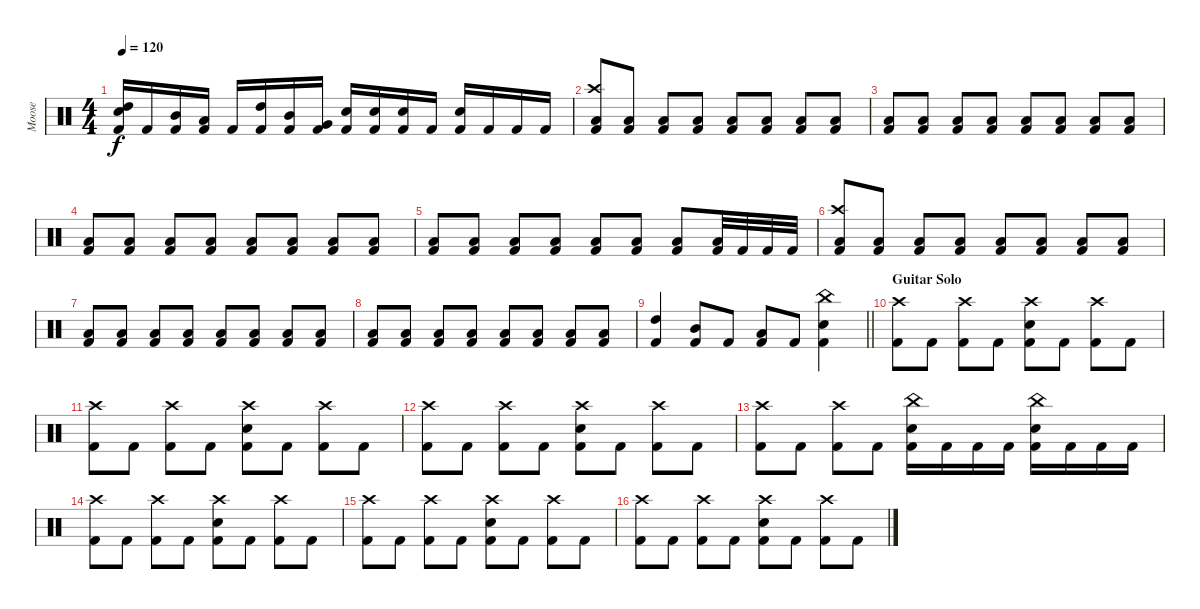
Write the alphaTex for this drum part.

\track ("Moose" "Moose") {instrument percussion}
\staff {score}
\articulation defaults
\ts (4 4)
\tempo 120
\clef neutral
\ks c
("High Tom (hit)" "Snare (hit) 2" "Kick (hit) 2").16{dy f} "Kick (hit) 2".16 ("Mid Tom (hit)" "Kick (hit) 2").16 ("Low Tom (hit)" "Kick (hit) 2").16 "Kick (hit) 2".16 ("High Tom (hit)" "Kick (hit) 2").16 ("Mid Tom (hit)" "Kick (hit) 2").16 ("Very Low Tom (hit)" "Kick (hit) 2").16 ("Snare (hit) 2" "Kick (hit) 2").16 ("Snare (hit) 2" "Kick (hit) 2").16 ("Snare (hit) 2" "Kick (hit) 2").16 "Kick (hit) 2".16 ("Snare (hit) 2" "Kick (hit) 2").16 "Kick (hit) 2".16 "Kick (hit) 2".16 "Kick (hit) 2".16 |
("Crash high (hit)" "Low Floor Tom (hit)" "Kick (hit) 2").8 ("Low Floor Tom (hit)" "Kick (hit) 2").8 ("Low Floor Tom (hit)" "Kick (hit) 2").8 ("Low Floor Tom (hit)" "Kick (hit) 2").8 ("Low Floor Tom (hit)" "Kick (hit) 2").8 ("Low Floor Tom (hit)" "Kick (hit) 2").8 ("Low Floor Tom (hit)" "Kick (hit) 2").8 ("Low Floor Tom (hit)" "Kick (hit) 2").8 |
("Low Floor Tom (hit)" "Kick (hit) 2").8 ("Low Floor Tom (hit)" "Kick (hit) 2").8 ("Low Floor Tom (hit)" "Kick (hit) 2").8 ("Low Floor Tom (hit)" "Kick (hit) 2").8 ("Low Floor Tom (hit)" "Kick (hit) 2").8 ("Low Floor Tom (hit)" "Kick (hit) 2").8 ("Low Floor Tom (hit)" "Kick (hit) 2").8 ("Low Floor Tom (hit)" "Kick (hit) 2").8 |
("Low Floor Tom (hit)" "Kick (hit) 2").8 ("Low Floor Tom (hit)" "Kick (hit) 2").8 ("Low Floor Tom (hit)" "Kick (hit) 2").8 ("Low Floor Tom (hit)" "Kick (hit) 2").8 ("Low Floor Tom (hit)" "Kick (hit) 2").8 ("Low Floor Tom (hit)" "Kick (hit) 2").8 ("Low Floor Tom (hit)" "Kick (hit) 2").8 ("Low Floor Tom (hit)" "Kick (hit) 2").8 |
("Low Floor Tom (hit)" "Kick (hit) 2").8 ("Low Floor Tom (hit)" "Kick (hit) 2").8 ("Low Floor Tom (hit)" "Kick (hit) 2").8 ("Low Floor Tom (hit)" "Kick (hit) 2").8 ("Low Floor Tom (hit)" "Kick (hit) 2").8 ("Low Floor Tom (hit)" "Kick (hit) 2").8 ("Low Floor Tom (hit)" "Kick (hit) 2").8 ("Low Floor Tom (hit)" "Kick (hit) 2").32 "Kick (hit) 2".32 "Kick (hit) 2".32 "Kick (hit) 2".32 |
("Crash high (hit)" "Low Floor Tom (hit)" "Kick (hit) 2").8 ("Low Floor Tom (hit)" "Kick (hit) 2").8 ("Low Floor Tom (hit)" "Kick (hit) 2").8 ("Low Floor Tom (hit)" "Kick (hit) 2").8 ("Low Floor Tom (hit)" "Kick (hit) 2").8 ("Low Floor Tom (hit)" "Kick (hit) 2").8 ("Low Floor Tom (hit)" "Kick (hit) 2").8 ("Low Floor Tom (hit)" "Kick (hit) 2").8 |
("Low Floor Tom (hit)" "Kick (hit) 2").8 ("Low Floor Tom (hit)" "Kick (hit) 2").8 ("Low Floor Tom (hit)" "Kick (hit) 2").8 ("Low Floor Tom (hit)" "Kick (hit) 2").8 ("Low Floor Tom (hit)" "Kick (hit) 2").8 ("Low Floor Tom (hit)" "Kick (hit) 2").8 ("Low Floor Tom (hit)" "Kick (hit) 2").8 ("Low Floor Tom (hit)" "Kick (hit) 2").8 |
("Low Floor Tom (hit)" "Kick (hit) 2").8 ("Low Floor Tom (hit)" "Kick (hit) 2").8 ("Low Floor Tom (hit)" "Kick (hit) 2").8 ("Low Floor Tom (hit)" "Kick (hit) 2").8 ("Low Floor Tom (hit)" "Kick (hit) 2").8 ("Low Floor Tom (hit)" "Kick (hit) 2").8 ("Low Floor Tom (hit)" "Kick (hit) 2").8 ("Low Floor Tom (hit)" "Kick (hit) 2").8 |
\barLineRight lightlight
("High Tom (hit)" "Kick (hit) 2").4 ("Mid Tom (hit)" "Kick (hit) 2").8 "Kick (hit) 2".8 ("Low Tom (hit)" "Kick (hit) 2").8 "Kick (hit) 2".8 ("China (hit)" "Snare (hit) 2" "Kick (hit) 2").4 |
\section ("" "Guitar Solo")
("Crash high (hit)" "Kick (hit) 2").8 "Kick (hit) 2".8 ("Crash high (hit)" "Kick (hit) 2").8 "Kick (hit) 2".8 ("Crash high (hit)" "Snare (hit) 2" "Kick (hit) 2").8 "Kick (hit) 2".8 ("Crash high (hit)" "Kick (hit) 2").8 "Kick (hit) 2".8 |
("Crash high (hit)" "Kick (hit) 2").8 "Kick (hit) 2".8 ("Crash high (hit)" "Kick (hit) 2").8 "Kick (hit) 2".8 ("Crash high (hit)" "Snare (hit) 2" "Kick (hit) 2").8 "Kick (hit) 2".8 ("Crash high (hit)" "Kick (hit) 2").8 "Kick (hit) 2".8 |
("Crash high (hit)" "Kick (hit) 2").8 "Kick (hit) 2".8 ("Crash high (hit)" "Kick (hit) 2").8 "Kick (hit) 2".8 ("Crash high (hit)" "Snare (hit) 2" "Kick (hit) 2").8 "Kick (hit) 2".8 ("Crash high (hit)" "Kick (hit) 2").8 "Kick (hit) 2".8 |
("Crash high (hit)" "Kick (hit) 2").8 "Kick (hit) 2".8 ("Crash high (hit)" "Kick (hit) 2").8 "Kick (hit) 2".8 ("China (hit)" "Snare (hit) 2" "Kick (hit) 2").16 "Kick (hit) 2".16 "Kick (hit) 2".16 "Kick (hit) 2".16 ("China (hit)" "Snare (hit) 2" "Kick (hit) 2").16 "Kick (hit) 2".16 "Kick (hit) 2".16 "Kick (hit) 2".16 |
("Crash high (hit)" "Kick (hit) 2").8 "Kick (hit) 2".8 ("Crash high (hit)" "Kick (hit) 2").8 "Kick (hit) 2".8 ("Crash high (hit)" "Snare (hit) 2" "Kick (hit) 2").8 "Kick (hit) 2".8 ("Crash high (hit)" "Kick (hit) 2").8 "Kick (hit) 2".8 |
("Crash high (hit)" "Kick (hit) 2").8 "Kick (hit) 2".8 ("Crash high (hit)" "Kick (hit) 2").8 "Kick (hit) 2".8 ("Crash high (hit)" "Snare (hit) 2" "Kick (hit) 2").8 "Kick (hit) 2".8 ("Crash high (hit)" "Kick (hit) 2").8 "Kick (hit) 2".8 |
("Crash high (hit)" "Kick (hit) 2").8 "Kick (hit) 2".8 ("Crash high (hit)" "Kick (hit) 2").8 "Kick (hit) 2".8 ("Crash high (hit)" "Snare (hit) 2" "Kick (hit) 2").8 "Kick (hit) 2".8 ("Crash high (hit)" "Kick (hit) 2").8 "Kick (hit) 2".8
